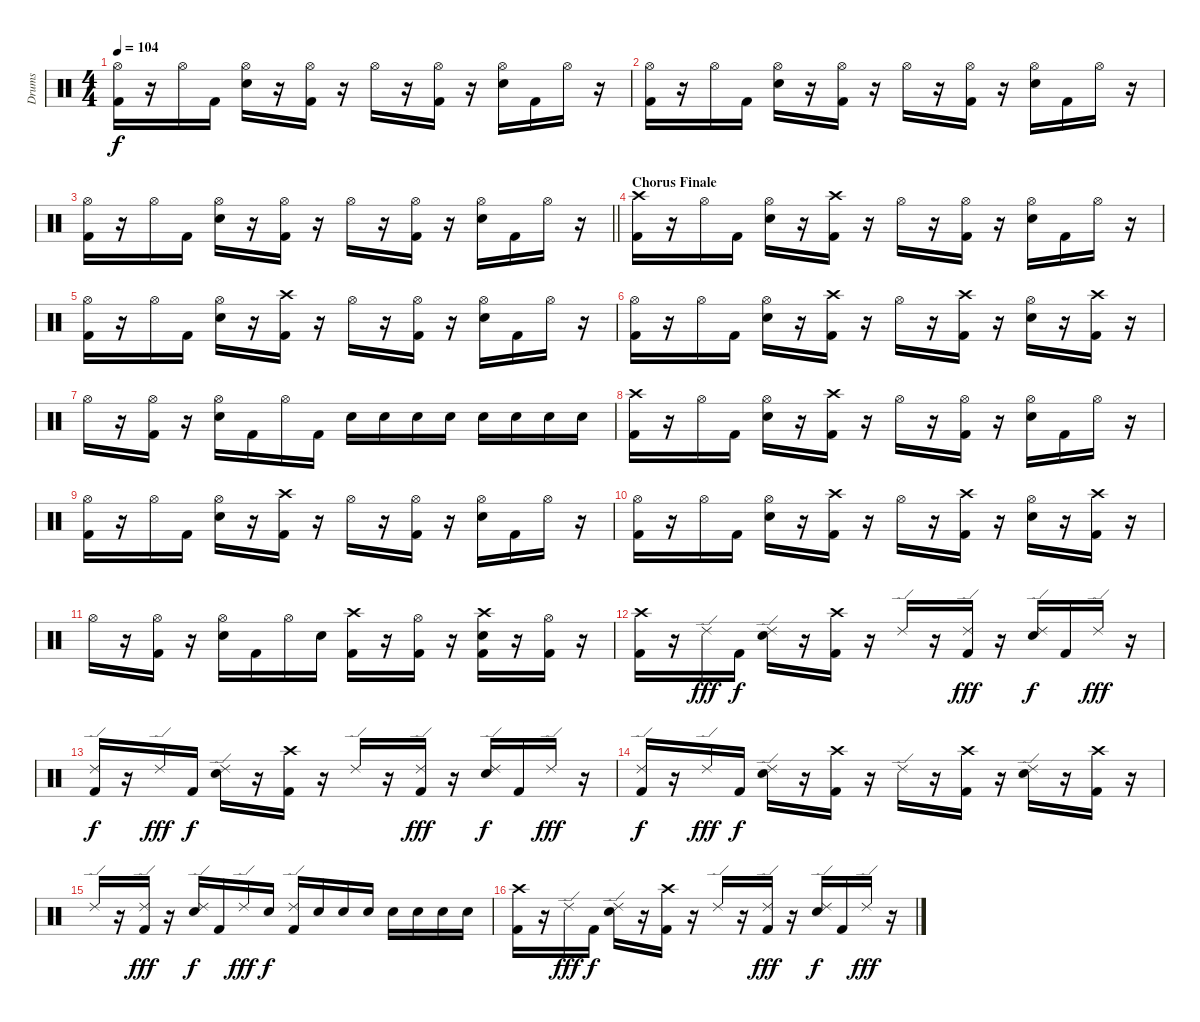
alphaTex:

\track ("Drums" "Drums") {instrument percussion}
\staff {score}
\articulation defaults
\ts (4 4)
\tempo 104
\clef neutral
\ks c
("Hi-Hat (open)" "Kick (hit) 2").16{dy f} r.16 "Hi-Hat (open)".16 "Kick (hit) 2".16 ("Hi-Hat (open)" "Snare (hit) 2").16 r.16 ("Hi-Hat (open)" "Kick (hit) 2").16 r.16 "Hi-Hat (open)".16 r.16 ("Hi-Hat (open)" "Kick (hit) 2").16 r.16 ("Hi-Hat (open)" "Snare (hit) 2").16 "Kick (hit) 2".16 "Hi-Hat (open)".16 r.16 |
("Hi-Hat (open)" "Kick (hit) 2").16 r.16 "Hi-Hat (open)".16 "Kick (hit) 2".16 ("Hi-Hat (open)" "Snare (hit) 2").16 r.16 ("Hi-Hat (open)" "Kick (hit) 2").16 r.16 "Hi-Hat (open)".16 r.16 ("Hi-Hat (open)" "Kick (hit) 2").16 r.16 ("Hi-Hat (open)" "Snare (hit) 2").16 "Kick (hit) 2".16 "Hi-Hat (open)".16 r.16 |
\barLineRight lightlight
("Hi-Hat (open)" "Kick (hit) 2").16 r.16 "Hi-Hat (open)".16 "Kick (hit) 2".16 ("Hi-Hat (open)" "Snare (hit) 2").16 r.16 ("Hi-Hat (open)" "Kick (hit) 2").16 r.16 "Hi-Hat (open)".16 r.16 ("Hi-Hat (open)" "Kick (hit) 2").16 r.16 ("Hi-Hat (open)" "Snare (hit) 2").16 "Kick (hit) 2".16 "Hi-Hat (open)".16 r.16 |
\section ("" "Chorus Finale")
("Crash high (hit)" "Kick (hit) 2").16 r.16 "Hi-Hat (open)".16 "Kick (hit) 2".16 ("Hi-Hat (open)" "Snare (hit) 2").16 r.16 ("Crash high (hit)" "Kick (hit) 2").16 r.16 "Hi-Hat (open)".16 r.16 ("Hi-Hat (open)" "Kick (hit) 2").16 r.16 ("Hi-Hat (open)" "Snare (hit) 2").16 "Kick (hit) 2".16 "Hi-Hat (open)".16 r.16 |
("Hi-Hat (open)" "Kick (hit) 2").16 r.16 "Hi-Hat (open)".16 "Kick (hit) 2".16 ("Hi-Hat (open)" "Snare (hit) 2").16 r.16 ("Crash high (hit)" "Kick (hit) 2").16 r.16 "Hi-Hat (open)".16 r.16 ("Hi-Hat (open)" "Kick (hit) 2").16 r.16 ("Hi-Hat (open)" "Snare (hit) 2").16 "Kick (hit) 2".16 "Hi-Hat (open)".16 r.16 |
("Hi-Hat (open)" "Kick (hit) 2").16 r.16 "Hi-Hat (open)".16 "Kick (hit) 2".16 ("Hi-Hat (open)" "Snare (hit) 2").16 r.16 ("Crash high (hit)" "Kick (hit) 2").16 r.16 "Hi-Hat (open)".16 r.16 ("Crash high (hit)" "Kick (hit) 2").16 r.16 ("Hi-Hat (open)" "Snare (hit) 2").16 r.16 ("Crash high (hit)" "Kick (hit) 2").16 r.16 |
"Hi-Hat (open)".16 r.16 ("Hi-Hat (open)" "Kick (hit) 2").16 r.16 ("Hi-Hat (open)" "Snare (hit) 2").16 "Kick (hit) 2".16 "Hi-Hat (open)".16 "Kick (hit) 2".16 "Snare (hit) 2".16 "Snare (hit) 2".16 "Snare (hit) 2".16 "Snare (hit) 2".16 "Snare (hit) 2".16 "Snare (hit) 2".16 "Snare (hit) 2".16 "Snare (hit) 2".16 |
("Crash high (hit)" "Kick (hit) 2").16 r.16 "Hi-Hat (open)".16 "Kick (hit) 2".16 ("Hi-Hat (open)" "Snare (hit) 2").16 r.16 ("Crash high (hit)" "Kick (hit) 2").16 r.16 "Hi-Hat (open)".16 r.16 ("Hi-Hat (open)" "Kick (hit) 2").16 r.16 ("Hi-Hat (open)" "Snare (hit) 2").16 "Kick (hit) 2".16 "Hi-Hat (open)".16 r.16 |
("Hi-Hat (open)" "Kick (hit) 2").16 r.16 "Hi-Hat (open)".16 "Kick (hit) 2".16 ("Hi-Hat (open)" "Snare (hit) 2").16 r.16 ("Crash high (hit)" "Kick (hit) 2").16 r.16 "Hi-Hat (open)".16 r.16 ("Hi-Hat (open)" "Kick (hit) 2").16 r.16 ("Hi-Hat (open)" "Snare (hit) 2").16 "Kick (hit) 2".16 "Hi-Hat (open)".16 r.16 |
("Hi-Hat (open)" "Kick (hit) 2").16 r.16 "Hi-Hat (open)".16 "Kick (hit) 2".16 ("Hi-Hat (open)" "Snare (hit) 2").16 r.16 ("Crash high (hit)" "Kick (hit) 2").16 r.16 "Hi-Hat (open)".16 r.16 ("Crash high (hit)" "Kick (hit) 2").16 r.16 ("Hi-Hat (open)" "Snare (hit) 2").16 r.16 ("Crash high (hit)" "Kick (hit) 2").16 r.16 |
"Hi-Hat (open)".16 r.16 ("Hi-Hat (open)" "Kick (hit) 2").16 r.16 ("Hi-Hat (open)" "Snare (hit) 2").16 "Kick (hit) 2".16 "Hi-Hat (open)".16 "Snare (hit) 2".16 ("Crash high (hit)" "Kick (hit) 2").16 r.16 ("Hi-Hat (open)" "Kick (hit) 2").16 r.16 ("Crash high (hit)" "Snare (hit) 2" "Kick (hit) 2").16 r.16 ("Hi-Hat (open)" "Kick (hit) 2").16 r.16 |
("Crash high (hit)" "Kick (hit) 2").16 r.16 "Ride (edge) 2".16{dy fff} "Kick (hit) 2".16{dy f} ("Ride (edge) 2" "Snare (hit) 2").16 r.16 ("Crash high (hit)" "Kick (hit) 2").16 r.16 "Ride (edge) 2".16 r.16 ("Ride (edge) 2" "Kick (hit) 2").16{dy fff} r.16 ("Ride (edge) 2" "Snare (hit) 2").16{dy f} "Kick (hit) 2".16 "Ride (edge) 2".16{dy fff} r.16 |
("Ride (edge) 2" "Kick (hit) 2").16{dy f} r.16 "Ride (edge) 2".16{dy fff} "Kick (hit) 2".16{dy f} ("Ride (edge) 2" "Snare (hit) 2").16 r.16 ("Crash high (hit)" "Kick (hit) 2").16 r.16 "Ride (edge) 2".16 r.16 ("Ride (edge) 2" "Kick (hit) 2").16{dy fff} r.16 ("Ride (edge) 2" "Snare (hit) 2").16{dy f} "Kick (hit) 2".16 "Ride (edge) 2".16{dy fff} r.16 |
("Ride (edge) 2" "Kick (hit) 2").16{dy f} r.16 "Ride (edge) 2".16{dy fff} "Kick (hit) 2".16{dy f} ("Ride (edge) 2" "Snare (hit) 2").16 r.16 ("Crash high (hit)" "Kick (hit) 2").16 r.16 "Ride (edge) 2".16 r.16 ("Crash high (hit)" "Kick (hit) 2").16 r.16 ("Ride (edge) 2" "Snare (hit) 2").16 r.16 ("Crash high (hit)" "Kick (hit) 2").16 r.16 |
"Ride (edge) 2".16 r.16 ("Ride (edge) 2" "Kick (hit) 2").16{dy fff} r.16 ("Ride (edge) 2" "Snare (hit) 2").16{dy f} "Kick (hit) 2".16 "Ride (edge) 2".16{dy fff} "Snare (hit) 2".16{dy f} ("Ride (edge) 2" "Kick (hit) 2").16 "Snare (hit) 2".16 "Snare (hit) 2".16 "Snare (hit) 2".16 "Snare (hit) 2".16 "Snare (hit) 2".16 "Snare (hit) 2".16 "Snare (hit) 2".16 |
("Crash high (hit)" "Kick (hit) 2").16 r.16 "Ride (edge) 2".16{dy fff} "Kick (hit) 2".16{dy f} ("Ride (edge) 2" "Snare (hit) 2").16 r.16 ("Crash high (hit)" "Kick (hit) 2").16 r.16 "Ride (edge) 2".16 r.16 ("Ride (edge) 2" "Kick (hit) 2").16{dy fff} r.16 ("Ride (edge) 2" "Snare (hit) 2").16{dy f} "Kick (hit) 2".16 "Ride (edge) 2".16{dy fff} r.16
